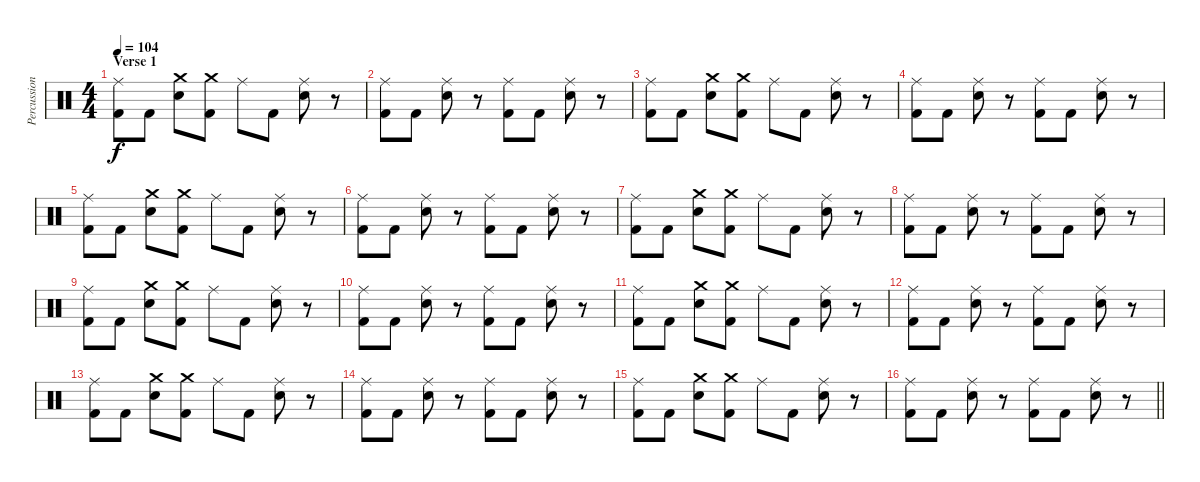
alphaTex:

\track ("Percussioni" "Percussion") {instrument percussion}
\staff {score}
\articulation defaults
\ts (4 4)
\section ("" "Verse 1")
\tempo 104
\clef neutral
\ks c
("Ride (middle)" "Kick (hit) 2").8{dy f} "Kick (hit) 2".8 ("Crash medium (hit)" "Electric Snare (hit)").8 ("Crash medium (hit)" "Kick (hit) 2").8 "Ride (middle)".8 "Kick (hit) 2".8 ("Ride (middle)" "Electric Snare (hit)").8 r.8 |
("Ride (middle)" "Kick (hit) 2").8 "Kick (hit) 2".8 ("Ride (middle)" "Electric Snare (hit)").8 r.8 ("Ride (middle)" "Kick (hit) 2").8 "Kick (hit) 2".8 ("Ride (middle)" "Electric Snare (hit)").8 r.8 |
("Ride (middle)" "Kick (hit) 2").8 "Kick (hit) 2".8 ("Crash medium (hit)" "Electric Snare (hit)").8 ("Crash medium (hit)" "Kick (hit) 2").8 "Ride (middle)".8 "Kick (hit) 2".8 ("Ride (middle)" "Electric Snare (hit)").8 r.8 |
("Ride (middle)" "Kick (hit) 2").8 "Kick (hit) 2".8 ("Ride (middle)" "Electric Snare (hit)").8 r.8 ("Ride (middle)" "Kick (hit) 2").8 "Kick (hit) 2".8 ("Ride (middle)" "Electric Snare (hit)").8 r.8 |
("Ride (middle)" "Kick (hit) 2").8 "Kick (hit) 2".8 ("Crash medium (hit)" "Electric Snare (hit)").8 ("Crash medium (hit)" "Kick (hit) 2").8 "Ride (middle)".8 "Kick (hit) 2".8 ("Ride (middle)" "Electric Snare (hit)").8 r.8 |
("Ride (middle)" "Kick (hit) 2").8 "Kick (hit) 2".8 ("Ride (middle)" "Electric Snare (hit)").8 r.8 ("Ride (middle)" "Kick (hit) 2").8 "Kick (hit) 2".8 ("Ride (middle)" "Electric Snare (hit)").8 r.8 |
("Ride (middle)" "Kick (hit) 2").8 "Kick (hit) 2".8 ("Crash medium (hit)" "Electric Snare (hit)").8 ("Crash medium (hit)" "Kick (hit) 2").8 "Ride (middle)".8 "Kick (hit) 2".8 ("Ride (middle)" "Electric Snare (hit)").8 r.8 |
("Ride (middle)" "Kick (hit) 2").8 "Kick (hit) 2".8 ("Ride (middle)" "Electric Snare (hit)").8 r.8 ("Ride (middle)" "Kick (hit) 2").8 "Kick (hit) 2".8 ("Ride (middle)" "Electric Snare (hit)").8 r.8 |
("Ride (middle)" "Kick (hit) 2").8 "Kick (hit) 2".8 ("Crash medium (hit)" "Electric Snare (hit)").8 ("Crash medium (hit)" "Kick (hit) 2").8 "Ride (middle)".8 "Kick (hit) 2".8 ("Ride (middle)" "Electric Snare (hit)").8 r.8 |
("Ride (middle)" "Kick (hit) 2").8 "Kick (hit) 2".8 ("Ride (middle)" "Electric Snare (hit)").8 r.8 ("Ride (middle)" "Kick (hit) 2").8 "Kick (hit) 2".8 ("Ride (middle)" "Electric Snare (hit)").8 r.8 |
("Ride (middle)" "Kick (hit) 2").8 "Kick (hit) 2".8 ("Crash medium (hit)" "Electric Snare (hit)").8 ("Crash medium (hit)" "Kick (hit) 2").8 "Ride (middle)".8 "Kick (hit) 2".8 ("Ride (middle)" "Electric Snare (hit)").8 r.8 |
("Ride (middle)" "Kick (hit) 2").8 "Kick (hit) 2".8 ("Ride (middle)" "Electric Snare (hit)").8 r.8 ("Ride (middle)" "Kick (hit) 2").8 "Kick (hit) 2".8 ("Ride (middle)" "Electric Snare (hit)").8 r.8 |
("Ride (middle)" "Kick (hit) 2").8 "Kick (hit) 2".8 ("Crash medium (hit)" "Electric Snare (hit)").8 ("Crash medium (hit)" "Kick (hit) 2").8 "Ride (middle)".8 "Kick (hit) 2".8 ("Ride (middle)" "Electric Snare (hit)").8 r.8 |
("Ride (middle)" "Kick (hit) 2").8 "Kick (hit) 2".8 ("Ride (middle)" "Electric Snare (hit)").8 r.8 ("Ride (middle)" "Kick (hit) 2").8 "Kick (hit) 2".8 ("Ride (middle)" "Electric Snare (hit)").8 r.8 |
("Ride (middle)" "Kick (hit) 2").8 "Kick (hit) 2".8 ("Crash medium (hit)" "Electric Snare (hit)").8 ("Crash medium (hit)" "Kick (hit) 2").8 "Ride (middle)".8 "Kick (hit) 2".8 ("Ride (middle)" "Electric Snare (hit)").8 r.8 |
\barLineRight lightlight
("Ride (middle)" "Kick (hit) 2").8 "Kick (hit) 2".8 ("Ride (middle)" "Electric Snare (hit)").8 r.8 ("Ride (middle)" "Kick (hit) 2").8 "Kick (hit) 2".8 ("Ride (middle)" "Electric Snare (hit)").8 r.8
